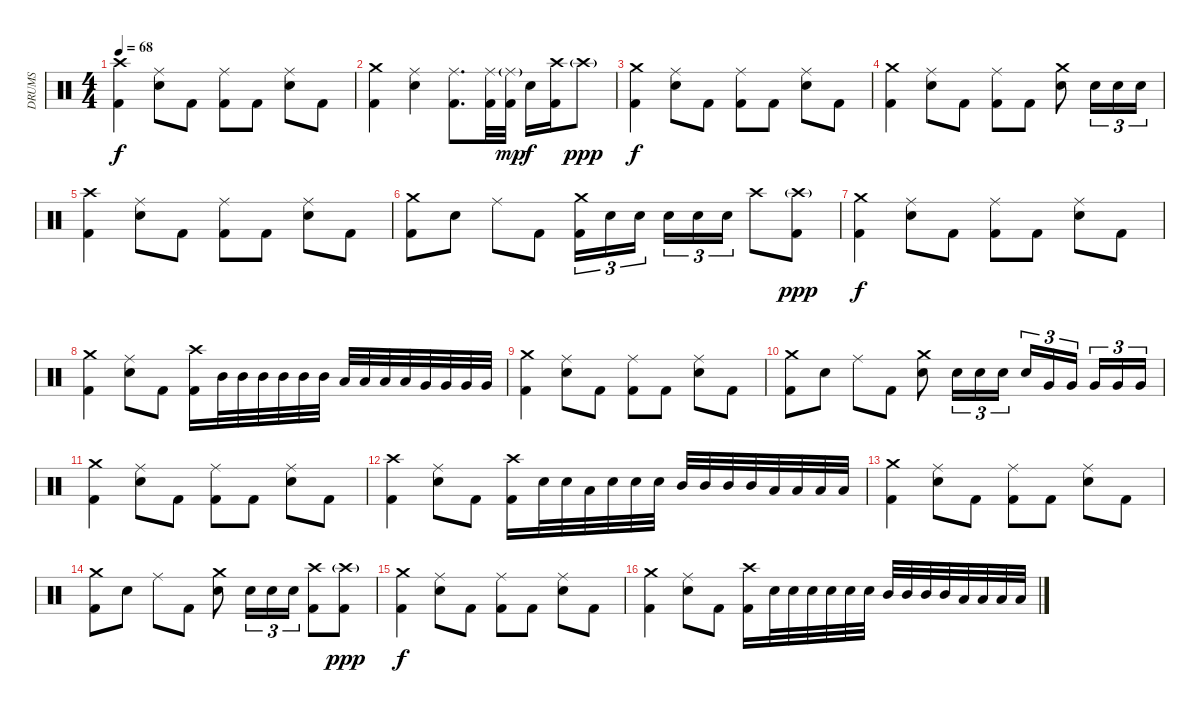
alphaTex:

\track ("DRUMS" "DRUMS") {instrument percussion}
\staff {score}
\articulation defaults
\ts (4 4)
\tempo 68
\clef neutral
\ks c
("Crash high (hit)" "Kick (hit) 2").4{dy f} ("Ride (middle)" "Snare (hit) 2").8 "Kick (hit) 2".8 ("Ride (middle)" "Kick (hit) 2").8 "Kick (hit) 2".8 ("Ride (middle)" "Snare (hit) 2").8 "Kick (hit) 2".8 |
("Crash medium (hit)" "Kick (hit) 2").4 ("Ride (middle)" "Snare (hit) 2").4 ("Ride (middle)" "Kick (hit) 2").8{d} ("Ride (middle)" "Kick (hit) 2").32 ("Ride (middle)"{g} "Kick (hit) 2").32{dy mp} "Snare (hit) 2".16{dy f} ("Crash high (hit)" "Kick (hit) 2").16 "Crash high (hit)"{g}.8{dy ppp} |
("Crash medium (hit)" "Kick (hit) 2").4{dy f} ("Ride (middle)" "Snare (hit) 2").8 "Kick (hit) 2".8 ("Ride (middle)" "Kick (hit) 2").8 "Kick (hit) 2".8 ("Ride (middle)" "Snare (hit) 2").8 "Kick (hit) 2".8 |
("Crash medium (hit)" "Kick (hit) 2").4 ("Ride (middle)" "Snare (hit) 2").8 "Kick (hit) 2".8 ("Ride (middle)" "Kick (hit) 2").8 "Kick (hit) 2".8 ("Crash medium (hit)" "Snare (hit) 2").8 "Snare (hit) 2".16{tu (3 2)} "Snare (hit) 2".16{tu (3 2)} "Snare (hit) 2".16{tu (3 2)} |
("Crash high (hit)" "Kick (hit) 2").4 ("Ride (middle)" "Snare (hit) 2").8 "Kick (hit) 2".8 ("Ride (middle)" "Kick (hit) 2").8 "Kick (hit) 2".8 ("Ride (middle)" "Snare (hit) 2").8 "Kick (hit) 2".8 |
("Crash medium (hit)" "Kick (hit) 2").8 "Snare (hit) 2".8 "Ride (middle)".8 "Kick (hit) 2".8 ("Crash medium (hit)" "Kick (hit) 2").16{tu (3 2)} "Snare (hit) 2".16{tu (3 2)} "Snare (hit) 2".16{tu (3 2) beam splitsecondary} "Snare (hit) 2".16{tu (3 2)} "Snare (hit) 2".16{tu (3 2)} "Snare (hit) 2".16{tu (3 2)} "Crash high (hit)".8 ("Crash high (hit)"{g} "Kick (hit) 2").8{dy ppp} |
("Crash medium (hit)" "Kick (hit) 2").4{dy f} ("Ride (middle)" "Snare (hit) 2").8 "Kick (hit) 2".8 ("Ride (middle)" "Kick (hit) 2").8 "Kick (hit) 2".8 ("Ride (middle)" "Snare (hit) 2").8 "Kick (hit) 2".8 |
("Crash medium (hit)" "Kick (hit) 2").4 ("Ride (middle)" "Snare (hit) 2").8 "Kick (hit) 2".8 ("Crash high (hit)" "Kick (hit) 2").16 "Mid Tom (hit)".32 "Mid Tom (hit)".32 "Mid Tom (hit)".32 "Mid Tom (hit)".32 "Mid Tom (hit)".32 "Mid Tom (hit)".32 "Low Tom (hit)".32 "Low Tom (hit)".32 "Low Tom (hit)".32 "Low Tom (hit)".32 "Very Low Tom (hit)".32 "Very Low Tom (hit)".32 "Very Low Tom (hit)".32 "Very Low Tom (hit)".32 |
("Crash medium (hit)" "Kick (hit) 2").4 ("Ride (middle)" "Snare (hit) 2").8 "Kick (hit) 2".8 ("Ride (middle)" "Kick (hit) 2").8 "Kick (hit) 2".8 ("Ride (middle)" "Snare (hit) 2").8 "Kick (hit) 2".8 |
("Crash medium (hit)" "Kick (hit) 2").8 "Snare (hit) 2".8 "Ride (middle)".8 "Kick (hit) 2".8 ("Crash medium (hit)" "Snare (hit) 2").8 "Snare (hit) 2".16{tu (3 2)} "Snare (hit) 2".16{tu (3 2)} "Snare (hit) 2".16{tu (3 2)} "Snare (hit) 2".16{tu (3 2)} "Very Low Tom (hit)".16{tu (3 2)} "Very Low Tom (hit)".16{tu (3 2) beam splitsecondary} "Very Low Tom (hit)".16{tu (3 2)} "Very Low Tom (hit)".16{tu (3 2)} "Very Low Tom (hit)".16{tu (3 2)} |
("Crash medium (hit)" "Kick (hit) 2").4 ("Ride (middle)" "Snare (hit) 2").8 "Kick (hit) 2".8 ("Ride (middle)" "Kick (hit) 2").8 "Kick (hit) 2".8 ("Ride (middle)" "Snare (hit) 2").8 "Kick (hit) 2".8 |
("Crash high (hit)" "Kick (hit) 2").4 ("Ride (middle)" "Snare (hit) 2").8 "Kick (hit) 2".8 ("Crash high (hit)" "Kick (hit) 2").16 "Snare (hit) 2".32 "Snare (hit) 2".32 "Low Tom (hit)".32 "Snare (hit) 2".32 "Snare (hit) 2".32 "Snare (hit) 2".32 "Mid Tom (hit)".32 "Mid Tom (hit)".32 "Mid Tom (hit)".32 "Mid Tom (hit)".32 "Low Tom (hit)".32 "Low Tom (hit)".32 "Low Tom (hit)".32 "Low Tom (hit)".32 |
("Crash medium (hit)" "Kick (hit) 2").4 ("Ride (middle)" "Snare (hit) 2").8 "Kick (hit) 2".8 ("Ride (middle)" "Kick (hit) 2").8 "Kick (hit) 2".8 ("Ride (middle)" "Snare (hit) 2").8 "Kick (hit) 2".8 |
("Crash medium (hit)" "Kick (hit) 2").8 "Snare (hit) 2".8 "Ride (middle)".8 "Kick (hit) 2".8 ("Crash medium (hit)" "Snare (hit) 2").8 "Snare (hit) 2".16{tu (3 2)} "Snare (hit) 2".16{tu (3 2)} "Snare (hit) 2".16{tu (3 2)} ("Crash high (hit)" "Kick (hit) 2").8 ("Crash high (hit)"{g} "Kick (hit) 2").8{dy ppp} |
("Crash medium (hit)" "Kick (hit) 2").4{dy f} ("Ride (middle)" "Snare (hit) 2").8 "Kick (hit) 2".8 ("Ride (middle)" "Kick (hit) 2").8 "Kick (hit) 2".8 ("Ride (middle)" "Snare (hit) 2").8 "Kick (hit) 2".8 |
("Crash medium (hit)" "Kick (hit) 2").4 ("Ride (middle)" "Snare (hit) 2").8 "Kick (hit) 2".8 ("Crash high (hit)" "Kick (hit) 2").16 "Snare (hit) 2".32 "Snare (hit) 2".32 "Snare (hit) 2".32 "Snare (hit) 2".32 "Snare (hit) 2".32 "Snare (hit) 2".32 "Mid Tom (hit)".32 "Mid Tom (hit)".32 "Mid Tom (hit)".32 "Mid Tom (hit)".32 "Low Tom (hit)".32 "Low Tom (hit)".32 "Low Tom (hit)".32 "Low Tom (hit)".32
